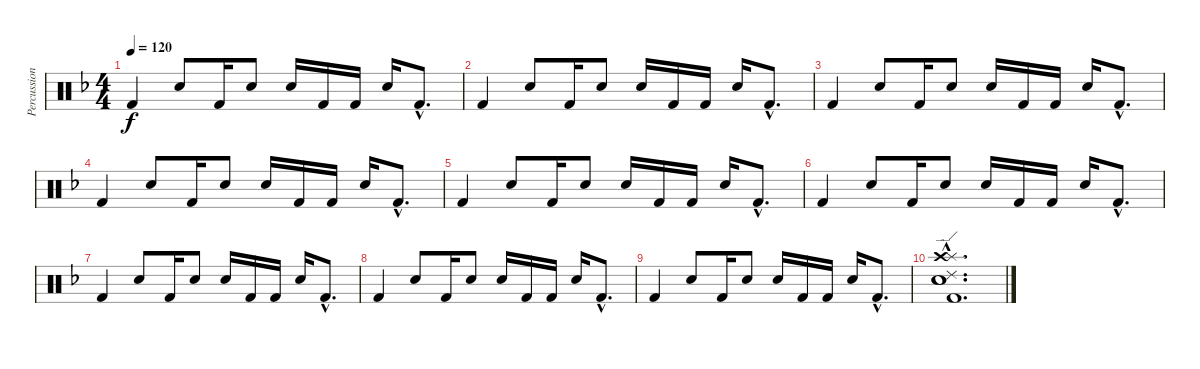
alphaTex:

\track ("Percussion" "Percussion") {instrument percussion}
\staff {score}
\articulation defaults
\ts (4 4)
\tempo 120
\clef neutral
\ks dminor "Kick (hit) 2".4{dy f} "Snare (hit) 2".8 "Kick (hit) 2".16 "Snare (hit) 2".8 "Snare (hit) 2".16 "Kick (hit) 2".16 "Kick (hit) 2".16 "Snare (hit) 2".16 "Kick (hit) 2"{hac}.8{d}
|
"Kick (hit) 2".4 "Snare (hit) 2".8 "Kick (hit) 2".16 "Snare (hit) 2".8 "Snare (hit) 2".16 "Kick (hit) 2".16 "Kick (hit) 2".16 "Snare (hit) 2".16 "Kick (hit) 2"{hac}.8{d} |
"Kick (hit) 2".4 "Snare (hit) 2".8 "Kick (hit) 2".16 "Snare (hit) 2".8 "Snare (hit) 2".16 "Kick (hit) 2".16 "Kick (hit) 2".16 "Snare (hit) 2".16 "Kick (hit) 2"{hac}.8{d} |
"Kick (hit) 2".4 "Snare (hit) 2".8 "Kick (hit) 2".16 "Snare (hit) 2".8 "Snare (hit) 2".16 "Kick (hit) 2".16 "Kick (hit) 2".16 "Snare (hit) 2".16 "Kick (hit) 2"{hac}.8{d} |
"Kick (hit) 2".4 "Snare (hit) 2".8 "Kick (hit) 2".16 "Snare (hit) 2".8 "Snare (hit) 2".16 "Kick (hit) 2".16 "Kick (hit) 2".16 "Snare (hit) 2".16 "Kick (hit) 2"{hac}.8{d} |
"Kick (hit) 2".4 "Snare (hit) 2".8 "Kick (hit) 2".16 "Snare (hit) 2".8 "Snare (hit) 2".16 "Kick (hit) 2".16 "Kick (hit) 2".16 "Snare (hit) 2".16 "Kick (hit) 2"{hac}.8{d} |
"Kick (hit) 2".4 "Snare (hit) 2".8 "Kick (hit) 2".16 "Snare (hit) 2".8 "Snare (hit) 2".16 "Kick (hit) 2".16 "Kick (hit) 2".16 "Snare (hit) 2".16 "Kick (hit) 2"{hac}.8{d} |
"Kick (hit) 2".4 "Snare (hit) 2".8 "Kick (hit) 2".16 "Snare (hit) 2".8 "Snare (hit) 2".16 "Kick (hit) 2".16 "Kick (hit) 2".16 "Snare (hit) 2".16 "Kick (hit) 2"{hac}.8{d} |
"Kick (hit) 2".4 "Snare (hit) 2".8 "Kick (hit) 2".16 "Snare (hit) 2".8 "Snare (hit) 2".16 "Kick (hit) 2".16 "Kick (hit) 2".16 "Snare (hit) 2".16 "Kick (hit) 2"{hac}.8{d} |
("Electric Snare (hit)"{hac} "Splash (hit)"{hac} "Ride (edge) 2"{hac} "Crash high (hit)"{hac} "Kick (hit) 2"{hac} "Snare (hit) 2"{hac}).1{d}
